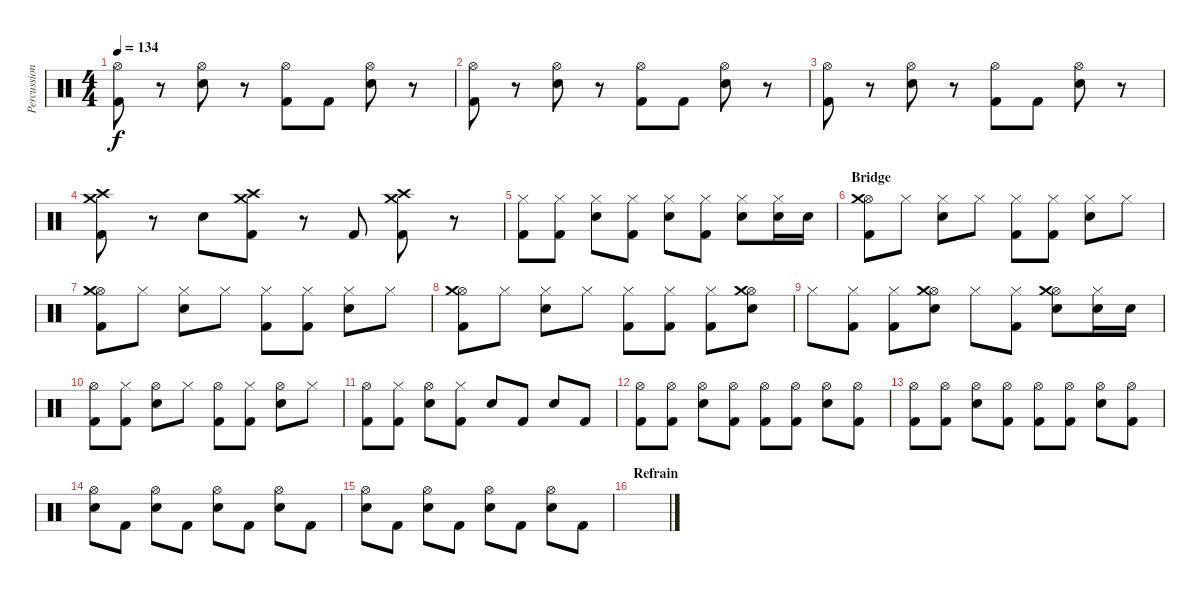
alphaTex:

\track ("Percussion" "Percussion") {instrument percussion}
\staff {score}
\articulation defaults
\ts (4 4)
\tempo 134
\clef neutral
\ks c
("Hi-Hat (open)" "Kick (hit) 2").8{dy f} r.8 ("Hi-Hat (open)" "Snare (hit) 2").8 r.8 ("Hi-Hat (open)" "Kick (hit) 2").8 "Kick (hit) 2".8 ("Hi-Hat (open)" "Snare (hit) 2").8 r.8 |
("Hi-Hat (open)" "Kick (hit) 2").8 r.8 ("Hi-Hat (open)" "Snare (hit) 2").8 r.8 ("Hi-Hat (open)" "Kick (hit) 2").8 "Kick (hit) 2".8 ("Hi-Hat (open)" "Snare (hit) 2").8 r.8 |
("Hi-Hat (open)" "Kick (hit) 2").8 r.8 ("Hi-Hat (open)" "Snare (hit) 2").8 r.8 ("Hi-Hat (open)" "Kick (hit) 2").8 "Kick (hit) 2".8 ("Hi-Hat (open)" "Snare (hit) 2").8 r.8 |
("Crash high (hit)" "Crash medium (hit)" "Kick (hit) 2").8 r.8 "Snare (hit) 2".8 ("Crash high (hit)" "Crash medium (hit)" "Kick (hit) 2").8 r.8 "Kick (hit) 2".8 ("Crash high (hit)" "Crash medium (hit)" "Kick (hit) 2").8 r.8 |
("Hi-Hat (closed)" "Kick (hit) 2").8 ("Hi-Hat (closed)" "Kick (hit) 2").8 ("Hi-Hat (closed)" "Snare (hit) 2").8 ("Hi-Hat (closed)" "Kick (hit) 2").8 ("Hi-Hat (closed)" "Snare (hit) 2").8 ("Hi-Hat (closed)" "Kick (hit) 2").8 ("Hi-Hat (closed)" "Snare (hit) 2").8 ("Hi-Hat (closed)" "Snare (hit) 2").16 "Snare (hit) 2".16 |
\section ("" "Bridge")
("Hi-Hat (open)" "Crash medium (hit)" "Kick (hit) 2").8 "Hi-Hat (closed)".8 ("Hi-Hat (closed)" "Snare (hit) 2").8 "Hi-Hat (closed)".8 ("Hi-Hat (closed)" "Kick (hit) 2").8 ("Hi-Hat (closed)" "Kick (hit) 2").8 ("Hi-Hat (closed)" "Snare (hit) 2").8 "Hi-Hat (closed)".8 |
("Hi-Hat (open)" "Crash medium (hit)" "Kick (hit) 2").8 "Hi-Hat (closed)".8 ("Hi-Hat (closed)" "Snare (hit) 2").8 "Hi-Hat (closed)".8 ("Hi-Hat (closed)" "Kick (hit) 2").8 ("Hi-Hat (closed)" "Kick (hit) 2").8 ("Hi-Hat (closed)" "Snare (hit) 2").8 "Hi-Hat (closed)".8 |
("Hi-Hat (open)" "Crash medium (hit)" "Kick (hit) 2").8 "Hi-Hat (closed)".8 ("Hi-Hat (closed)" "Snare (hit) 2").8 "Hi-Hat (closed)".8 ("Hi-Hat (closed)" "Kick (hit) 2").8 ("Hi-Hat (closed)" "Kick (hit) 2").8 ("Hi-Hat (closed)" "Kick (hit) 2").8 ("Hi-Hat (open)" "Crash medium (hit)" "Snare (hit) 2").8 |
"Hi-Hat (closed)".8 ("Hi-Hat (closed)" "Kick (hit) 2").8 ("Hi-Hat (closed)" "Kick (hit) 2").8 ("Hi-Hat (open)" "Crash medium (hit)" "Snare (hit) 2").8 "Hi-Hat (closed)".8 ("Hi-Hat (closed)" "Kick (hit) 2").8 ("Hi-Hat (open)" "Crash medium (hit)" "Snare (hit) 2").8 ("Hi-Hat (closed)" "Snare (hit) 2").16 "Snare (hit) 2".16 |
("Hi-Hat (open)" "Kick (hit) 2").8 ("Hi-Hat (closed)" "Kick (hit) 2").8 ("Hi-Hat (open)" "Snare (hit) 2").8 "Hi-Hat (closed)".8 ("Hi-Hat (open)" "Kick (hit) 2").8 ("Hi-Hat (closed)" "Kick (hit) 2").8 ("Hi-Hat (open)" "Snare (hit) 2").8 "Hi-Hat (closed)".8 |
("Hi-Hat (open)" "Kick (hit) 2").8 ("Hi-Hat (closed)" "Kick (hit) 2").8 ("Hi-Hat (open)" "Snare (hit) 2").8 ("Hi-Hat (closed)" "Kick (hit) 2").8 "Snare (hit) 2".8 "Kick (hit) 2".8 "Snare (hit) 2".8 "Kick (hit) 2".8 |
("Hi-Hat (open)" "Kick (hit) 2").8 ("Hi-Hat (open)" "Kick (hit) 2").8 ("Hi-Hat (open)" "Snare (hit) 2").8 ("Hi-Hat (open)" "Kick (hit) 2").8 ("Hi-Hat (open)" "Kick (hit) 2").8 ("Hi-Hat (open)" "Kick (hit) 2").8 ("Hi-Hat (open)" "Snare (hit) 2").8 ("Hi-Hat (open)" "Kick (hit) 2").8 |
("Hi-Hat (open)" "Kick (hit) 2").8 ("Hi-Hat (open)" "Kick (hit) 2").8 ("Hi-Hat (open)" "Snare (hit) 2").8 ("Hi-Hat (open)" "Kick (hit) 2").8 ("Hi-Hat (open)" "Kick (hit) 2").8 ("Hi-Hat (open)" "Kick (hit) 2").8 ("Hi-Hat (open)" "Snare (hit) 2").8 ("Hi-Hat (open)" "Kick (hit) 2").8 |
("Hi-Hat (open)" "Snare (hit) 2").8 "Kick (hit) 2".8 ("Hi-Hat (open)" "Snare (hit) 2").8 "Kick (hit) 2".8 ("Hi-Hat (open)" "Snare (hit) 2").8 "Kick (hit) 2".8 ("Hi-Hat (open)" "Snare (hit) 2").8 "Kick (hit) 2".8 |
("Hi-Hat (open)" "Snare (hit) 2").8 "Kick (hit) 2".8 ("Hi-Hat (open)" "Snare (hit) 2").8 "Kick (hit) 2".8 ("Hi-Hat (open)" "Snare (hit) 2").8 "Kick (hit) 2".8 ("Hi-Hat (open)" "Snare (hit) 2").8 "Kick (hit) 2".8 |
\section ("" "Refrain")
